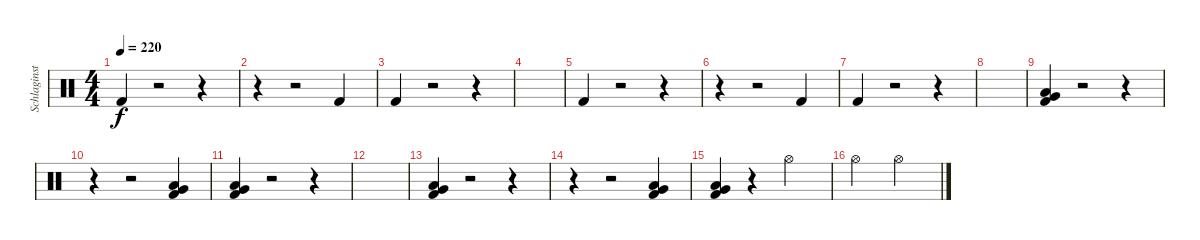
\track ("Schlaginstrumente - Auswahl" "Schlaginst") {instrument percussion}
\staff {score}
\articulation defaults
\ts (4 4)
\tempo 220
\clef neutral
\ks c "Kick (hit) 2".4{dy f}
r.2 r.4 |
r.4 r.2 "Kick (hit) 2".4 |
"Kick (hit) 2".4 r.2 r.4 |
|
"Kick (hit) 2".4 r.2 r.4 |
r.4 r.2 "Kick (hit) 2".4 |
"Kick (hit) 2".4 r.2 r.4 |
|
("Low Tom (hit)" "Very Low Tom (hit)" "Kick (hit) 2").4 r.2 r.4 |
r.4 r.2 ("Low Tom (hit)" "Very Low Tom (hit)" "Kick (hit) 2").4 |
("Low Tom (hit)" "Very Low Tom (hit)" "Kick (hit) 2").4 r.2 r.4 |
|
("Low Tom (hit)" "Very Low Tom (hit)" "Kick (hit) 2").4 r.2 r.4 |
r.4 r.2 ("Low Tom (hit)" "Very Low Tom (hit)" "Kick (hit) 2").4 |
("Low Tom (hit)" "Very Low Tom (hit)" "Kick (hit) 2").4 r.4 "Hi-Hat (open)".2 |
"Hi-Hat (open)".2 "Hi-Hat (open)".2
